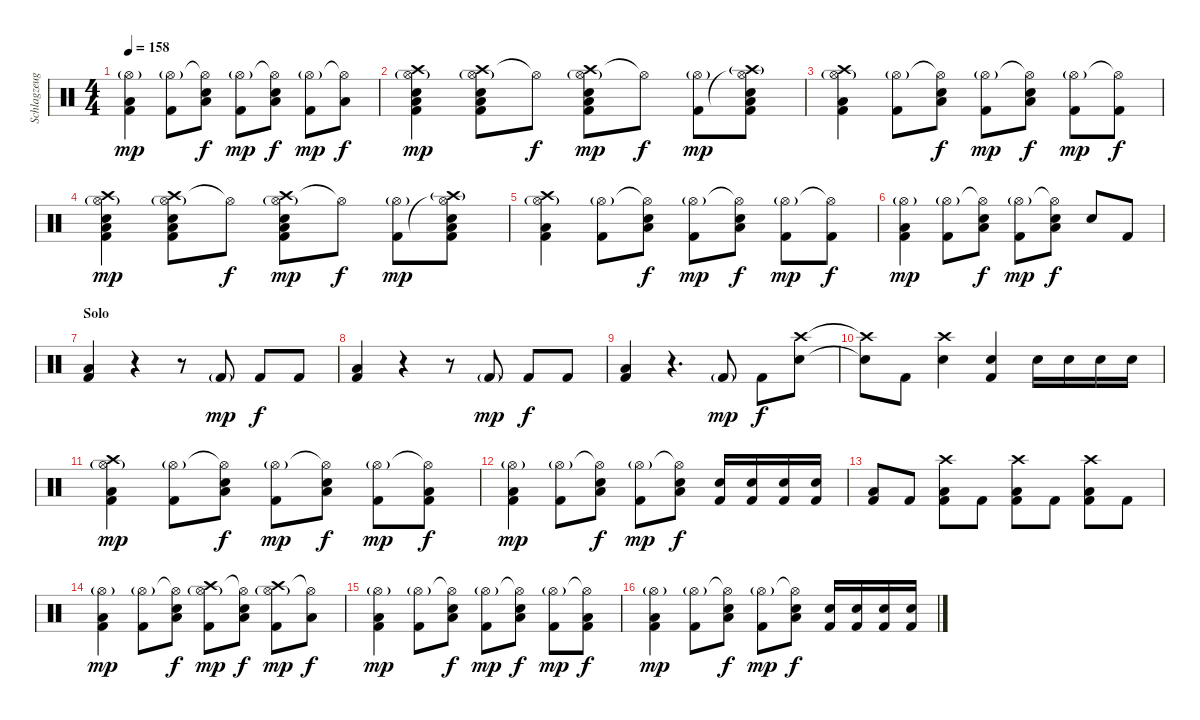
\track ("Schlagzeug" "Schlagzeug") {instrument percussion}
\staff {score}
\articulation defaults
\ts (4 4)
\tempo 158
\clef neutral
\ks c
("Hi-Hat (open)"{g} "Low Floor Tom (hit)" "Kick (hit) 2").4{dy mp} ("Hi-Hat (open)"{g} "Kick (hit) 2").8 ("Hi-Hat (open)"{t} "Low Floor Tom (hit)" "Electric Snare (hit)").8{dy f} ("Hi-Hat (open)"{g} "Kick (hit) 2").8{dy mp} ("Hi-Hat (open)"{t} "Low Floor Tom (hit)" "Electric Snare (hit)").8{dy f} ("Hi-Hat (open)"{g} "Kick (hit) 2").8{dy mp} ("Hi-Hat (open)"{t} "Low Floor Tom (hit)").8{dy f} |
("Crash high (hit)" "Hi-Hat (open)"{g} "Low Floor Tom (hit)" "Electric Snare (hit)" "Kick (hit) 2").4{dy mp} ("Crash high (hit)" "Hi-Hat (open)"{g} "Low Floor Tom (hit)" "Electric Snare (hit)" "Kick (hit) 2").8 "Hi-Hat (open)"{t}.8{dy f} ("Crash high (hit)" "Hi-Hat (open)"{g} "Low Floor Tom (hit)" "Electric Snare (hit)" "Kick (hit) 2").8{dy mp} "Hi-Hat (open)"{t}.8{dy f} ("Hi-Hat (open)"{g} "Kick (hit) 2").8{dy mp} ("Crash high (hit)"{g} "Hi-Hat (open)"{t} "Low Floor Tom (hit)" "Electric Snare (hit)" "Kick (hit) 2").8 |
("Crash high (hit)" "Hi-Hat (open)"{g} "Low Floor Tom (hit)" "Kick (hit) 2").4 ("Hi-Hat (open)"{g} "Kick (hit) 2").8 ("Hi-Hat (open)"{t} "Low Floor Tom (hit)" "Electric Snare (hit)").8{dy f} ("Hi-Hat (open)"{g} "Kick (hit) 2").8{dy mp} ("Hi-Hat (open)"{t} "Low Floor Tom (hit)" "Electric Snare (hit)").8{dy f} ("Hi-Hat (open)"{g} "Kick (hit) 2").8{dy mp} ("Hi-Hat (open)"{t} "Kick (hit) 2").8{dy f} |
("Crash high (hit)" "Hi-Hat (open)"{g} "Low Floor Tom (hit)" "Electric Snare (hit)" "Kick (hit) 2").4{dy mp} ("Crash high (hit)" "Hi-Hat (open)"{g} "Low Floor Tom (hit)" "Electric Snare (hit)" "Kick (hit) 2").8 "Hi-Hat (open)"{t}.8{dy f} ("Crash high (hit)" "Hi-Hat (open)"{g} "Low Floor Tom (hit)" "Electric Snare (hit)" "Kick (hit) 2").8{dy mp} "Hi-Hat (open)"{t}.8{dy f} ("Hi-Hat (open)"{g} "Kick (hit) 2").8{dy mp} ("Crash high (hit)"{g} "Hi-Hat (open)"{t} "Low Floor Tom (hit)" "Electric Snare (hit)" "Kick (hit) 2").8 |
("Crash high (hit)" "Hi-Hat (open)"{g} "Low Floor Tom (hit)" "Kick (hit) 2").4 ("Hi-Hat (open)"{g} "Kick (hit) 2").8 ("Hi-Hat (open)"{t} "Low Floor Tom (hit)" "Electric Snare (hit)").8{dy f} ("Hi-Hat (open)"{g} "Kick (hit) 2").8{dy mp} ("Hi-Hat (open)"{t} "Low Floor Tom (hit)" "Electric Snare (hit)").8{dy f} ("Hi-Hat (open)"{g} "Kick (hit) 2").8{dy mp} ("Hi-Hat (open)"{t} "Kick (hit) 2").8{dy f} |
("Hi-Hat (open)"{g} "Low Floor Tom (hit)" "Kick (hit) 2").4{dy mp} ("Hi-Hat (open)"{g} "Kick (hit) 2").8 ("Hi-Hat (open)"{t} "Low Floor Tom (hit)" "Electric Snare (hit)").8{dy f} ("Hi-Hat (open)"{g} "Kick (hit) 2").8{dy mp} ("Hi-Hat (open)"{t} "Low Floor Tom (hit)" "Electric Snare (hit)").8{dy f} "Electric Snare (hit)".8 "Kick (hit) 2".8 |
\section ("" "Solo")
("Low Floor Tom (hit)" "Kick (hit) 2").4 r.4 r.8 "Kick (hit) 2"{g}.8{dy mp} "Kick (hit) 2".8{dy f} "Kick (hit) 2".8 |
("Low Floor Tom (hit)" "Kick (hit) 2").4 r.4 r.8 "Kick (hit) 2"{g}.8{dy mp} "Kick (hit) 2".8{dy f} "Kick (hit) 2".8 |
("Low Floor Tom (hit)" "Kick (hit) 2").4 r.4{d} "Kick (hit) 2"{g}.8{dy mp} "Kick (hit) 2".8{dy f} ("Crash high (hit)" "Snare (hit) 2").8 |
("Crash high (hit)"{t} "Snare (hit) 2"{t}).8 "Kick (hit) 2".8 ("Crash high (hit)" "Snare (hit) 2").4 ("Snare (hit) 2" "Kick (hit) 2").4 "Snare (hit) 2".16 "Snare (hit) 2".16 "Snare (hit) 2".16 "Snare (hit) 2".16 |
("Crash high (hit)" "Hi-Hat (open)"{g} "Low Floor Tom (hit)" "Kick (hit) 2").4{dy mp} ("Hi-Hat (open)"{g} "Kick (hit) 2").8 ("Hi-Hat (open)"{t} "Low Floor Tom (hit)" "Electric Snare (hit)").8{dy f} ("Hi-Hat (open)"{g} "Kick (hit) 2").8{dy mp} ("Hi-Hat (open)"{t} "Low Floor Tom (hit)" "Electric Snare (hit)").8{dy f} ("Hi-Hat (open)"{g} "Kick (hit) 2").8{dy mp} ("Hi-Hat (open)"{t} "Low Floor Tom (hit)" "Kick (hit) 2").8{dy f} |
("Hi-Hat (open)"{g} "Low Floor Tom (hit)" "Kick (hit) 2").4{dy mp} ("Hi-Hat (open)"{g} "Kick (hit) 2").8 ("Hi-Hat (open)"{t} "Low Floor Tom (hit)" "Electric Snare (hit)").8{dy f} ("Hi-Hat (open)"{g} "Kick (hit) 2").8{dy mp} ("Hi-Hat (open)"{t} "Low Floor Tom (hit)" "Electric Snare (hit)").8{dy f} ("Electric Snare (hit)" "Kick (hit) 2").16 ("Electric Snare (hit)" "Kick (hit) 2").16 ("Electric Snare (hit)" "Kick (hit) 2").16 ("Electric Snare (hit)" "Kick (hit) 2").16 |
("Low Floor Tom (hit)" "Kick (hit) 2").8 "Kick (hit) 2".8 ("Crash high (hit)" "Low Floor Tom (hit)" "Kick (hit) 2").8 "Kick (hit) 2".8 ("Crash high (hit)" "Low Floor Tom (hit)" "Kick (hit) 2").8 "Kick (hit) 2".8 ("Crash high (hit)" "Low Floor Tom (hit)" "Kick (hit) 2").8 "Kick (hit) 2".8 |
("Hi-Hat (open)"{g} "Low Floor Tom (hit)" "Kick (hit) 2").4{dy mp} ("Hi-Hat (open)"{g} "Kick (hit) 2").8 ("Hi-Hat (open)"{t} "Low Floor Tom (hit)" "Electric Snare (hit)").8{dy f} ("Crash high (hit)" "Hi-Hat (open)"{g} "Kick (hit) 2").8{dy mp} ("Hi-Hat (open)"{t} "Low Floor Tom (hit)" "Electric Snare (hit)").8{dy f} ("Crash high (hit)" "Hi-Hat (open)"{g} "Kick (hit) 2").8{dy mp} ("Hi-Hat (open)"{t} "Low Floor Tom (hit)").8{dy f} |
("Hi-Hat (open)"{g} "Low Floor Tom (hit)" "Kick (hit) 2").4{dy mp} ("Hi-Hat (open)"{g} "Kick (hit) 2").8 ("Hi-Hat (open)"{t} "Low Floor Tom (hit)" "Electric Snare (hit)").8{dy f} ("Hi-Hat (open)"{g} "Kick (hit) 2").8{dy mp} ("Hi-Hat (open)"{t} "Low Floor Tom (hit)" "Electric Snare (hit)").8{dy f} ("Hi-Hat (open)"{g} "Kick (hit) 2").8{dy mp} ("Hi-Hat (open)"{t} "Low Floor Tom (hit)" "Kick (hit) 2").8{dy f} |
("Hi-Hat (open)"{g} "Low Floor Tom (hit)" "Kick (hit) 2").4{dy mp} ("Hi-Hat (open)"{g} "Kick (hit) 2").8 ("Hi-Hat (open)"{t} "Low Floor Tom (hit)" "Electric Snare (hit)").8{dy f} ("Hi-Hat (open)"{g} "Kick (hit) 2").8{dy mp} ("Hi-Hat (open)"{t} "Low Floor Tom (hit)" "Electric Snare (hit)").8{dy f} ("Electric Snare (hit)" "Kick (hit) 2").16 ("Electric Snare (hit)" "Kick (hit) 2").16 ("Electric Snare (hit)" "Kick (hit) 2").16 ("Electric Snare (hit)" "Kick (hit) 2").16
